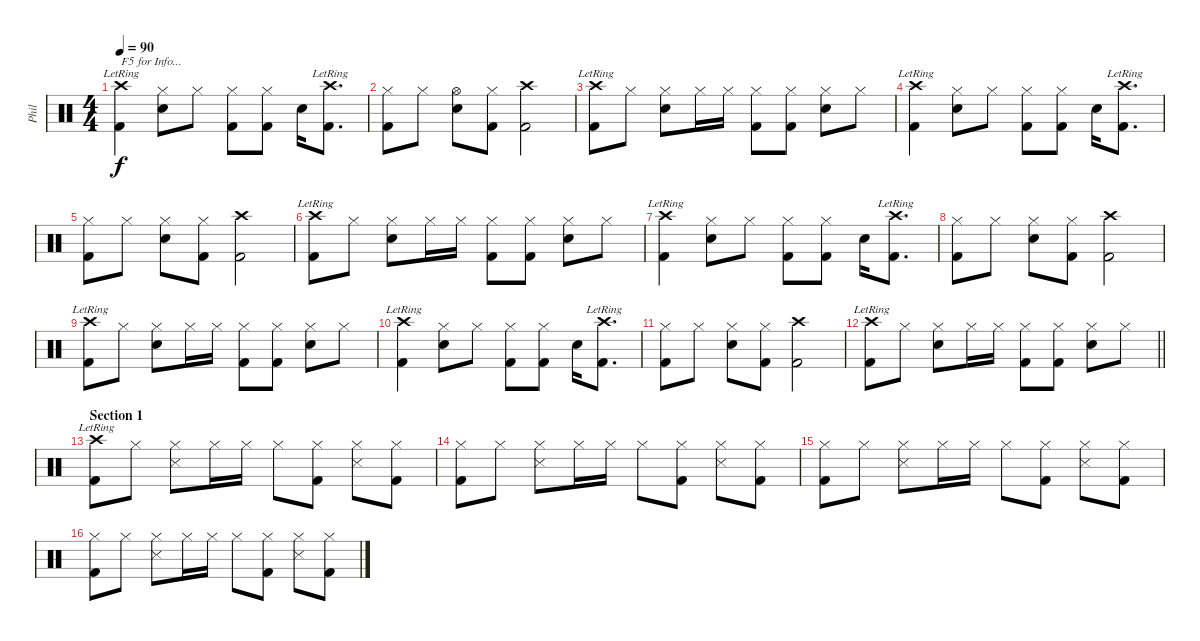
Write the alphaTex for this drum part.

\track ("Phil" "Phil") {instrument percussion}
\staff {score}
\articulation defaults
\ts (4 4)
\tempo 90
\clef neutral
\ks c
("Kick (hit) 2" "Crash high (hit)"{lr}).4{txt "F5 for Info..." dy f} ("Snare (hit) 2" "Hi-Hat (closed)").8 "Hi-Hat (closed)".8 ("Kick (hit) 2" "Hi-Hat (closed)").8 ("Kick (hit) 2" "Hi-Hat (closed)").8 "Snare (hit) 2".16 ("Kick (hit) 2" "Crash high (hit)"{lr}).8{d} |
("Kick (hit) 2" "Hi-Hat (closed)").8 "Hi-Hat (closed)".8 ("Snare (hit) 2" "Hi-Hat (open)").8 ("Kick (hit) 2" "Hi-Hat (closed)").8 ("Kick (hit) 2" "Crash high (hit)").2 |
("Kick (hit) 2" "Crash high (hit)"{lr}).8 "Hi-Hat (closed)".8 ("Snare (hit) 2" "Hi-Hat (closed)").8 "Hi-Hat (closed)".16 "Hi-Hat (closed)".16 ("Kick (hit) 2" "Hi-Hat (closed)").8 ("Kick (hit) 2" "Hi-Hat (closed)").8 ("Snare (hit) 2" "Hi-Hat (closed)").8 "Hi-Hat (closed)".8 |
("Kick (hit) 2" "Crash high (hit)"{lr}).4 ("Snare (hit) 2" "Hi-Hat (closed)").8 "Hi-Hat (closed)".8 ("Kick (hit) 2" "Hi-Hat (closed)").8 ("Kick (hit) 2" "Hi-Hat (closed)").8 "Snare (hit) 2".16 ("Kick (hit) 2" "Crash high (hit)"{lr}).8{d} |
("Kick (hit) 2" "Hi-Hat (closed)").8 "Hi-Hat (closed)".8 ("Snare (hit) 2" "Hi-Hat (closed)").8 ("Kick (hit) 2" "Hi-Hat (closed)").8 ("Kick (hit) 2" "Crash high (hit)").2 |
("Kick (hit) 2" "Crash high (hit)"{lr}).8 "Hi-Hat (closed)".8 ("Snare (hit) 2" "Hi-Hat (closed)").8 "Hi-Hat (closed)".16 "Hi-Hat (closed)".16 ("Kick (hit) 2" "Hi-Hat (closed)").8 ("Kick (hit) 2" "Hi-Hat (closed)").8 ("Snare (hit) 2" "Hi-Hat (closed)").8 "Hi-Hat (closed)".8 |
("Kick (hit) 2" "Crash high (hit)"{lr}).4 ("Snare (hit) 2" "Hi-Hat (closed)").8 "Hi-Hat (closed)".8 ("Kick (hit) 2" "Hi-Hat (closed)").8 ("Kick (hit) 2" "Hi-Hat (closed)").8 "Snare (hit) 2".16 ("Kick (hit) 2" "Crash high (hit)"{lr}).8{d} |
("Kick (hit) 2" "Hi-Hat (closed)").8 "Hi-Hat (closed)".8 ("Snare (hit) 2" "Hi-Hat (closed)").8 ("Kick (hit) 2" "Hi-Hat (closed)").8 ("Kick (hit) 2" "Crash high (hit)").2 |
("Kick (hit) 2" "Crash high (hit)"{lr}).8 "Hi-Hat (closed)".8 ("Snare (hit) 2" "Hi-Hat (closed)").8 "Hi-Hat (closed)".16 "Hi-Hat (closed)".16 ("Kick (hit) 2" "Hi-Hat (closed)").8 ("Kick (hit) 2" "Hi-Hat (closed)").8 ("Snare (hit) 2" "Hi-Hat (closed)").8 "Hi-Hat (closed)".8 |
("Kick (hit) 2" "Crash high (hit)"{lr}).4 ("Snare (hit) 2" "Hi-Hat (closed)").8 "Hi-Hat (closed)".8 ("Kick (hit) 2" "Hi-Hat (closed)").8 ("Kick (hit) 2" "Hi-Hat (closed)").8 "Snare (hit) 2".16 ("Kick (hit) 2" "Crash high (hit)"{lr}).8{d} |
("Kick (hit) 2" "Hi-Hat (closed)").8 "Hi-Hat (closed)".8 ("Snare (hit) 2" "Hi-Hat (closed)").8 ("Kick (hit) 2" "Hi-Hat (closed)").8 ("Kick (hit) 2" "Crash high (hit)").2 |
\barLineRight lightlight
("Kick (hit) 2" "Crash high (hit)"{lr}).8 "Hi-Hat (closed)".8 ("Snare (hit) 2" "Hi-Hat (closed)").8 "Hi-Hat (closed)".16 "Hi-Hat (closed)".16 ("Kick (hit) 2" "Hi-Hat (closed)").8 ("Kick (hit) 2" "Hi-Hat (closed)").8 ("Snare (hit) 2" "Hi-Hat (closed)").8 "Hi-Hat (closed)".8 |
\section ("" "Section 1")
("Kick (hit) 2" "Crash high (hit)"{lr}).8 "Hi-Hat (closed)".8 ("Snare (side stick) 3" "Hi-Hat (closed)").8 "Hi-Hat (closed)".16 "Hi-Hat (closed)".16 "Hi-Hat (closed)".8 ("Kick (hit) 2" "Hi-Hat (closed)").8 ("Snare (side stick) 3" "Hi-Hat (closed)").8 ("Kick (hit) 2" "Hi-Hat (closed)").8 |
("Kick (hit) 2" "Hi-Hat (closed)").8 "Hi-Hat (closed)".8 ("Snare (side stick) 3" "Hi-Hat (closed)").8 "Hi-Hat (closed)".16 "Hi-Hat (closed)".16 "Hi-Hat (closed)".8 ("Kick (hit) 2" "Hi-Hat (closed)").8 ("Snare (side stick) 3" "Hi-Hat (closed)").8 ("Kick (hit) 2" "Hi-Hat (closed)").8 |
("Kick (hit) 2" "Hi-Hat (closed)").8 "Hi-Hat (closed)".8 ("Snare (side stick) 3" "Hi-Hat (closed)").8 "Hi-Hat (closed)".16 "Hi-Hat (closed)".16 "Hi-Hat (closed)".8 ("Kick (hit) 2" "Hi-Hat (closed)").8 ("Snare (side stick) 3" "Hi-Hat (closed)").8 ("Kick (hit) 2" "Hi-Hat (closed)").8 |
("Kick (hit) 2" "Hi-Hat (closed)").8 "Hi-Hat (closed)".8 ("Snare (side stick) 3" "Hi-Hat (closed)").8 "Hi-Hat (closed)".16 "Hi-Hat (closed)".16 "Hi-Hat (closed)".8 ("Kick (hit) 2" "Hi-Hat (closed)").8 ("Snare (side stick) 3" "Hi-Hat (closed)").8 ("Kick (hit) 2" "Hi-Hat (closed)").8
